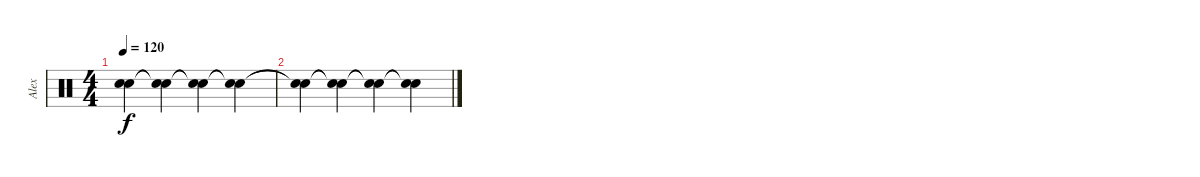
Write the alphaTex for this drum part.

\track ("Alex" "Alex") {instrument percussion}
\staff {score}
\articulation defaults
\ts (4 4)
\tempo 120
\clef neutral
\ks c
("Snare (hit)"{t} "Snare (hit)"{t}).4{dy f} ("Snare (hit)"{t} "Snare (hit)"{t}).4 ("Snare (hit)"{t} "Snare (hit)"{t}).4 ("Snare (hit)"{t} "Snare (hit)"{t}).4 |
("Snare (hit)"{t} "Snare (hit)"{t}).4 ("Snare (hit)"{t} "Snare (hit)"{t}).4 ("Snare (hit)"{t} "Snare (hit)"{t}).4 ("Snare (hit)"{t} "Snare (hit)"{t}).4
